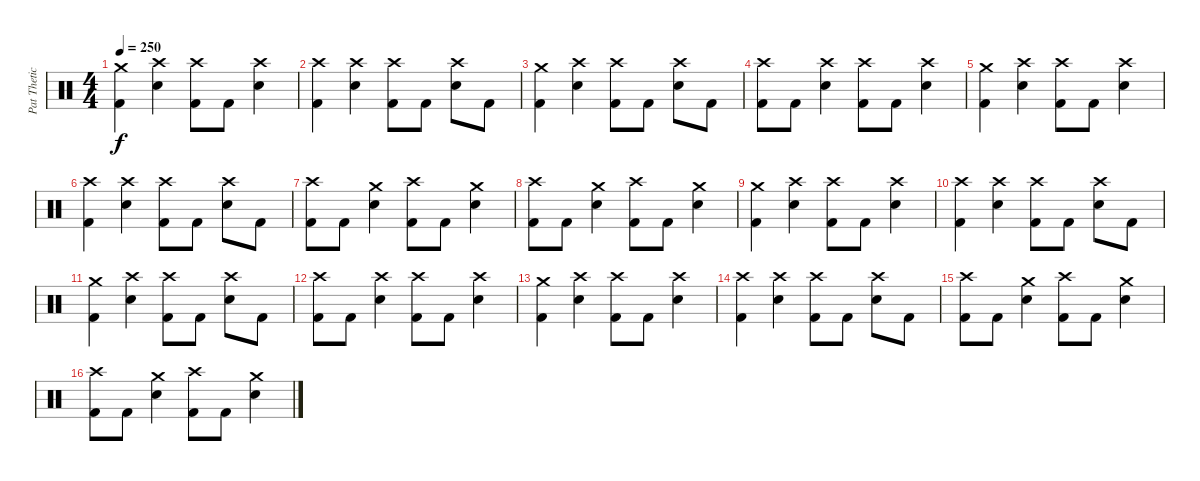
\track ("Pat Thetic" "Pat Thetic") {instrument percussion}
\staff {score}
\articulation defaults
\ts (4 4)
\tempo 250
\clef neutral
\ks c
("Crash medium (hit)" "Kick (hit) 2").4{dy f} ("Crash high (hit)" "Snare (hit) 2").4 ("Crash high (hit)" "Kick (hit) 2").8 "Kick (hit) 2".8 ("Crash high (hit)" "Snare (hit) 2").4 |
("Crash high (hit)" "Kick (hit) 2").4 ("Crash high (hit)" "Snare (hit) 2").4 ("Crash high (hit)" "Kick (hit) 2").8 "Kick (hit) 2".8 ("Crash high (hit)" "Snare (hit) 2").8 "Kick (hit) 2".8 |
("Crash medium (hit)" "Kick (hit) 2").4 ("Crash high (hit)" "Snare (hit) 2").4 ("Crash high (hit)" "Kick (hit) 2").8 "Kick (hit) 2".8 ("Crash high (hit)" "Snare (hit) 2").8 "Kick (hit) 2".8 |
("Crash high (hit)" "Kick (hit) 2").8 "Kick (hit) 2".8 ("Crash high (hit)" "Snare (hit) 2").4 ("Crash high (hit)" "Kick (hit) 2").8 "Kick (hit) 2".8 ("Crash high (hit)" "Snare (hit) 2").4 |
("Crash medium (hit)" "Kick (hit) 2").4 ("Crash high (hit)" "Snare (hit) 2").4 ("Crash high (hit)" "Kick (hit) 2").8 "Kick (hit) 2".8 ("Crash high (hit)" "Snare (hit) 2").4 |
("Crash high (hit)" "Kick (hit) 2").4 ("Crash high (hit)" "Snare (hit) 2").4 ("Crash high (hit)" "Kick (hit) 2").8 "Kick (hit) 2".8 ("Crash high (hit)" "Snare (hit) 2").8 "Kick (hit) 2".8 |
("Crash high (hit)" "Kick (hit) 2").8 "Kick (hit) 2".8 ("Crash medium (hit)" "Snare (hit) 2").4 ("Crash high (hit)" "Kick (hit) 2").8 "Kick (hit) 2".8 ("Crash medium (hit)" "Snare (hit) 2").4 |
("Crash high (hit)" "Kick (hit) 2").8 "Kick (hit) 2".8 ("Crash medium (hit)" "Snare (hit) 2").4 ("Crash high (hit)" "Kick (hit) 2").8 "Kick (hit) 2".8 ("Crash medium (hit)" "Snare (hit) 2").4 |
("Crash medium (hit)" "Kick (hit) 2").4 ("Crash high (hit)" "Snare (hit) 2").4 ("Crash high (hit)" "Kick (hit) 2").8 "Kick (hit) 2".8 ("Crash high (hit)" "Snare (hit) 2").4 |
("Crash high (hit)" "Kick (hit) 2").4 ("Crash high (hit)" "Snare (hit) 2").4 ("Crash high (hit)" "Kick (hit) 2").8 "Kick (hit) 2".8 ("Crash high (hit)" "Snare (hit) 2").8 "Kick (hit) 2".8 |
("Crash medium (hit)" "Kick (hit) 2").4 ("Crash high (hit)" "Snare (hit) 2").4 ("Crash high (hit)" "Kick (hit) 2").8 "Kick (hit) 2".8 ("Crash high (hit)" "Snare (hit) 2").8 "Kick (hit) 2".8 |
("Crash high (hit)" "Kick (hit) 2").8 "Kick (hit) 2".8 ("Crash high (hit)" "Snare (hit) 2").4 ("Crash high (hit)" "Kick (hit) 2").8 "Kick (hit) 2".8 ("Crash high (hit)" "Snare (hit) 2").4 |
("Crash medium (hit)" "Kick (hit) 2").4 ("Crash high (hit)" "Snare (hit) 2").4 ("Crash high (hit)" "Kick (hit) 2").8 "Kick (hit) 2".8 ("Crash high (hit)" "Snare (hit) 2").4 |
("Crash high (hit)" "Kick (hit) 2").4 ("Crash high (hit)" "Snare (hit) 2").4 ("Crash high (hit)" "Kick (hit) 2").8 "Kick (hit) 2".8 ("Crash high (hit)" "Snare (hit) 2").8 "Kick (hit) 2".8 |
("Crash high (hit)" "Kick (hit) 2").8 "Kick (hit) 2".8 ("Crash medium (hit)" "Snare (hit) 2").4 ("Crash high (hit)" "Kick (hit) 2").8 "Kick (hit) 2".8 ("Crash medium (hit)" "Snare (hit) 2").4 |
("Crash high (hit)" "Kick (hit) 2").8 "Kick (hit) 2".8 ("Crash medium (hit)" "Snare (hit) 2").4 ("Crash high (hit)" "Kick (hit) 2").8 "Kick (hit) 2".8 ("Crash medium (hit)" "Snare (hit) 2").4
